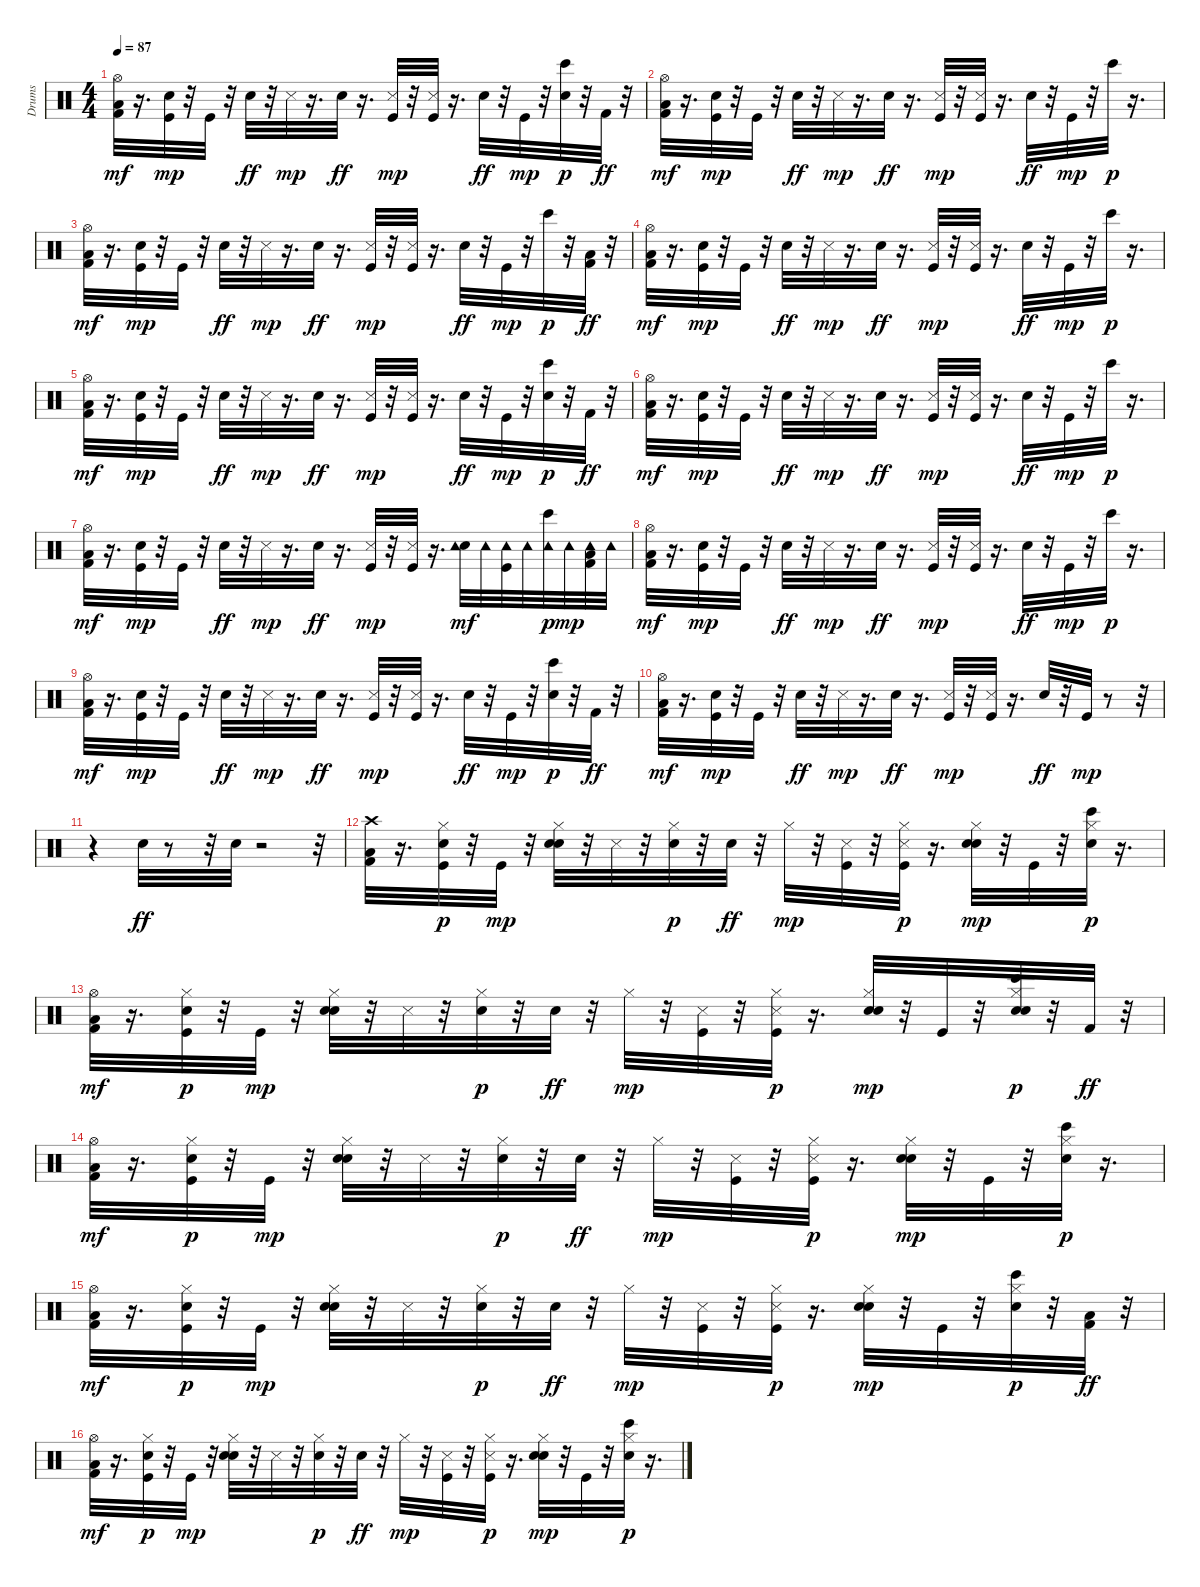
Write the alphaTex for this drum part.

\track ("Drums     " "Drums     ") {instrument percussion}
\staff {score}
\articulation defaults
\ts (4 4)
\tempo 87
\clef neutral
\ks c
("Kick (hit) 2" "Low Floor Tom (hit)" "Hi-Hat (open)").32{dy mf} r.16{d} ("Kick (hit)" "Snare (hit) 2").32{dy mp} r.32 "Kick (hit)".32 r.32 "Hand Clap (hit)".32{dy ff} r.32 "Snare (side stick) 3".32{dy mp} r.16{d} "Hand Clap (hit)".32{dy ff} r.16{d} ("Kick (hit)" "Snare (side stick) 3").32{dy mp} r.32 ("Kick (hit)" "Snare (side stick) 3").32 r.16{d} "Hand Clap (hit)".32{dy ff} r.32 "Kick (hit)".32{dy mp} r.32 ("Snare (hit) 2" "Bongo High (hit)").32{dy p} r.32 "Kick (hit) 2".32{dy ff} r.32 |
("Kick (hit) 2" "Low Floor Tom (hit)" "Hi-Hat (open)").32{dy mf} r.16{d} ("Kick (hit)" "Snare (hit) 2").32{dy mp} r.32 "Kick (hit)".32 r.32 "Hand Clap (hit)".32{dy ff} r.32 "Snare (side stick) 3".32{dy mp} r.16{d} "Hand Clap (hit)".32{dy ff} r.16{d} ("Kick (hit)" "Snare (side stick) 3").32{dy mp} r.32 ("Kick (hit)" "Snare (side stick) 3").32 r.16{d} "Hand Clap (hit)".32{dy ff} r.32 "Kick (hit)".32{dy mp} r.32 "Bongo High (hit)".32{dy p} r.16{d} |
("Kick (hit) 2" "Low Floor Tom (hit)" "Hi-Hat (open)").32{dy mf} r.16{d} ("Kick (hit)" "Snare (hit) 2").32{dy mp} r.32 "Kick (hit)".32 r.32 "Hand Clap (hit)".32{dy ff} r.32 "Snare (side stick) 3".32{dy mp} r.16{d} "Hand Clap (hit)".32{dy ff} r.16{d} ("Kick (hit)" "Snare (side stick) 3").32{dy mp} r.32 ("Kick (hit)" "Snare (side stick) 3").32 r.16{d} "Hand Clap (hit)".32{dy ff} r.32 "Kick (hit)".32{dy mp} r.32 "Bongo High (hit)".32{dy p} r.32 ("Kick (hit) 2" "Low Floor Tom (hit)").32{dy ff} r.32 |
("Kick (hit) 2" "Low Floor Tom (hit)" "Hi-Hat (open)").32{dy mf} r.16{d} ("Kick (hit)" "Snare (hit) 2").32{dy mp} r.32 "Kick (hit)".32 r.32 "Hand Clap (hit)".32{dy ff} r.32 "Snare (side stick) 3".32{dy mp} r.16{d} "Hand Clap (hit)".32{dy ff} r.16{d} ("Kick (hit)" "Snare (side stick) 3").32{dy mp} r.32 ("Kick (hit)" "Snare (side stick) 3").32 r.16{d} "Hand Clap (hit)".32{dy ff} r.32 "Kick (hit)".32{dy mp} r.32 "Bongo High (hit)".32{dy p} r.16{d} |
("Kick (hit) 2" "Low Floor Tom (hit)" "Hi-Hat (open)").32{dy mf} r.16{d} ("Kick (hit)" "Snare (hit) 2").32{dy mp} r.32 "Kick (hit)".32 r.32 "Hand Clap (hit)".32{dy ff} r.32 "Snare (side stick) 3".32{dy mp} r.16{d} "Hand Clap (hit)".32{dy ff} r.16{d} ("Kick (hit)" "Snare (side stick) 3").32{dy mp} r.32 ("Kick (hit)" "Snare (side stick) 3").32 r.16{d} "Hand Clap (hit)".32{dy ff} r.32 "Kick (hit)".32{dy mp} r.32 ("Snare (hit) 2" "Bongo High (hit)").32{dy p} r.32 "Kick (hit) 2".32{dy ff} r.32 |
("Kick (hit) 2" "Low Floor Tom (hit)" "Hi-Hat (open)").32{dy mf} r.16{d} ("Kick (hit)" "Snare (hit) 2").32{dy mp} r.32 "Kick (hit)".32 r.32 "Hand Clap (hit)".32{dy ff} r.32 "Snare (side stick) 3".32{dy mp} r.16{d} "Hand Clap (hit)".32{dy ff} r.16{d} ("Kick (hit)" "Snare (side stick) 3").32{dy mp} r.32 ("Kick (hit)" "Snare (side stick) 3").32 r.16{d} "Hand Clap (hit)".32{dy ff} r.32 "Kick (hit)".32{dy mp} r.32 "Bongo High (hit)".32{dy p} r.16{d} |
("Kick (hit) 2" "Low Floor Tom (hit)" "Hi-Hat (open)").32{dy mf} r.16{d} ("Kick (hit)" "Snare (hit) 2").32{dy mp} r.32 "Kick (hit)".32 r.32 "Hand Clap (hit)".32{dy ff} r.32 "Snare (side stick) 3".32{dy mp} r.16{d} "Hand Clap (hit)".32{dy ff} r.16{d} ("Kick (hit)" "Snare (side stick) 3").32{dy mp} r.32 ("Kick (hit)" "Snare (side stick) 3").32 r.16{d} ("Hand Clap (hit)" "Tambourine (hit)").32{dy mf} "Tambourine (hit)".32 ("Kick (hit)" "Tambourine (hit)").32 "Tambourine (hit)".32 ("Tambourine (hit)" "Bongo High (hit)").32{dy p} "Tambourine (hit)".32{dy mp} ("Kick (hit) 2" "Low Floor Tom (hit)" "Tambourine (hit)").32 "Tambourine (hit)".32 |
("Kick (hit) 2" "Low Floor Tom (hit)" "Hi-Hat (open)").32{dy mf} r.16{d} ("Kick (hit)" "Snare (hit) 2").32{dy mp} r.32 "Kick (hit)".32 r.32 "Hand Clap (hit)".32{dy ff} r.32 "Snare (side stick) 3".32{dy mp} r.16{d} "Hand Clap (hit)".32{dy ff} r.16{d} ("Kick (hit)" "Snare (side stick) 3").32{dy mp} r.32 ("Kick (hit)" "Snare (side stick) 3").32 r.16{d} "Hand Clap (hit)".32{dy ff} r.32 "Kick (hit)".32{dy mp} r.32 "Bongo High (hit)".32{dy p} r.16{d} |
("Kick (hit) 2" "Low Floor Tom (hit)" "Hi-Hat (open)").32{dy mf} r.16{d} ("Kick (hit)" "Snare (hit) 2").32{dy mp} r.32 "Kick (hit)".32 r.32 "Hand Clap (hit)".32{dy ff} r.32 "Snare (side stick) 3".32{dy mp} r.16{d} "Hand Clap (hit)".32{dy ff} r.16{d} ("Kick (hit)" "Snare (side stick) 3").32{dy mp} r.32 ("Kick (hit)" "Snare (side stick) 3").32 r.16{d} "Hand Clap (hit)".32{dy ff} r.32 "Kick (hit)".32{dy mp} r.32 ("Snare (hit) 2" "Bongo High (hit)").32{dy p} r.32 "Kick (hit) 2".32{dy ff} r.32 |
("Kick (hit) 2" "Low Floor Tom (hit)" "Hi-Hat (open)").32{dy mf} r.16{d} ("Kick (hit)" "Snare (hit) 2").32{dy mp} r.32 "Kick (hit)".32 r.32 "Hand Clap (hit)".32{dy ff} r.32 "Snare (side stick) 3".32{dy mp} r.16{d} "Hand Clap (hit)".32{dy ff} r.16{d} ("Kick (hit)" "Snare (side stick) 3").32{dy mp} r.32 ("Kick (hit)" "Snare (side stick) 3").32 r.16{d} "Hand Clap (hit)".32{dy ff} r.32 "Kick (hit)".32{dy mp} r.8 r.32 |
r.4 "Hand Clap (hit)".32{dy ff} r.8 r.32 "Hand Clap (hit)".32 r.2 r.32 |
("Kick (hit) 2" "Low Floor Tom (hit)" "Crash high (hit)").32 r.16{d} ("Kick (hit)" "Snare (hit) 2" "Hi-Hat (closed)").32{dy p} r.32 "Kick (hit)".32{dy mp} r.32 ("Electric Snare (hit)" "Hand Clap (hit)" "Hi-Hat (closed)").32 r.32 "Snare (side stick) 3".32 r.32 ("Electric Snare (hit)" "Hi-Hat (closed)").32{dy p} r.32 "Hand Clap (hit)".32{dy ff} r.32 "Hi-Hat (closed)".32{dy mp} r.32 ("Kick (hit)" "Snare (side stick) 3").32 r.32 ("Kick (hit)" "Snare (side stick) 3" "Hi-Hat (closed)").32{dy p} r.16{d} ("Electric Snare (hit)" "Hand Clap (hit)" "Hi-Hat (closed)").32{dy mp} r.32 "Kick (hit)".32 r.32 ("Electric Snare (hit)" "Hi-Hat (closed)" "Bongo High (hit)").32{dy p} r.16{d} |
("Kick (hit) 2" "Low Floor Tom (hit)" "Hi-Hat (open)").32{dy mf} r.16{d} ("Kick (hit)" "Snare (hit) 2" "Hi-Hat (closed)").32{dy p} r.32 "Kick (hit)".32{dy mp} r.32 ("Electric Snare (hit)" "Hand Clap (hit)" "Hi-Hat (closed)").32 r.32 "Snare (side stick) 3".32 r.32 ("Electric Snare (hit)" "Hi-Hat (closed)").32{dy p} r.32 "Hand Clap (hit)".32{dy ff} r.32 "Hi-Hat (closed)".32{dy mp} r.32 ("Kick (hit)" "Snare (side stick) 3").32 r.32 ("Kick (hit)" "Snare (side stick) 3" "Hi-Hat (closed)").32{dy p} r.16{d} ("Electric Snare (hit)" "Hand Clap (hit)" "Hi-Hat (closed)").32{dy mp} r.32 "Kick (hit)".32 r.32 ("Snare (hit) 2" "Electric Snare (hit)" "Hi-Hat (closed)" "Bongo High (hit)").32{dy p} r.32 "Kick (hit) 2".32{dy ff} r.32 |
("Kick (hit) 2" "Low Floor Tom (hit)" "Hi-Hat (open)").32{dy mf} r.16{d} ("Kick (hit)" "Snare (hit) 2" "Hi-Hat (closed)").32{dy p} r.32 "Kick (hit)".32{dy mp} r.32 ("Electric Snare (hit)" "Hand Clap (hit)" "Hi-Hat (closed)").32 r.32 "Snare (side stick) 3".32 r.32 ("Electric Snare (hit)" "Hi-Hat (closed)").32{dy p} r.32 "Hand Clap (hit)".32{dy ff} r.32 "Hi-Hat (closed)".32{dy mp} r.32 ("Kick (hit)" "Snare (side stick) 3").32 r.32 ("Kick (hit)" "Snare (side stick) 3" "Hi-Hat (closed)").32{dy p} r.16{d} ("Electric Snare (hit)" "Hand Clap (hit)" "Hi-Hat (closed)").32{dy mp} r.32 "Kick (hit)".32 r.32 ("Electric Snare (hit)" "Hi-Hat (closed)" "Bongo High (hit)").32{dy p} r.16{d} |
("Kick (hit) 2" "Low Floor Tom (hit)" "Hi-Hat (open)").32{dy mf} r.16{d} ("Kick (hit)" "Snare (hit) 2" "Hi-Hat (closed)").32{dy p} r.32 "Kick (hit)".32{dy mp} r.32 ("Electric Snare (hit)" "Hand Clap (hit)" "Hi-Hat (closed)").32 r.32 "Snare (side stick) 3".32 r.32 ("Electric Snare (hit)" "Hi-Hat (closed)").32{dy p} r.32 "Hand Clap (hit)".32{dy ff} r.32 "Hi-Hat (closed)".32{dy mp} r.32 ("Kick (hit)" "Snare (side stick) 3").32 r.32 ("Kick (hit)" "Snare (side stick) 3" "Hi-Hat (closed)").32{dy p} r.16{d} ("Electric Snare (hit)" "Hand Clap (hit)" "Hi-Hat (closed)").32{dy mp} r.32 "Kick (hit)".32 r.32 ("Electric Snare (hit)" "Hi-Hat (closed)" "Bongo High (hit)").32{dy p} r.32 ("Kick (hit) 2" "Low Floor Tom (hit)").32{dy ff} r.32 |
("Kick (hit) 2" "Low Floor Tom (hit)" "Hi-Hat (open)").32{dy mf} r.16{d} ("Kick (hit)" "Snare (hit) 2" "Hi-Hat (closed)").32{dy p} r.32 "Kick (hit)".32{dy mp} r.32 ("Electric Snare (hit)" "Hand Clap (hit)" "Hi-Hat (closed)").32 r.32 "Snare (side stick) 3".32 r.32 ("Electric Snare (hit)" "Hi-Hat (closed)").32{dy p} r.32 "Hand Clap (hit)".32{dy ff} r.32 "Hi-Hat (closed)".32{dy mp} r.32 ("Kick (hit)" "Snare (side stick) 3").32 r.32 ("Kick (hit)" "Snare (side stick) 3" "Hi-Hat (closed)").32{dy p} r.16{d} ("Electric Snare (hit)" "Hand Clap (hit)" "Hi-Hat (closed)").32{dy mp} r.32 "Kick (hit)".32 r.32 ("Electric Snare (hit)" "Hi-Hat (closed)" "Bongo High (hit)").32{dy p} r.16{d}
